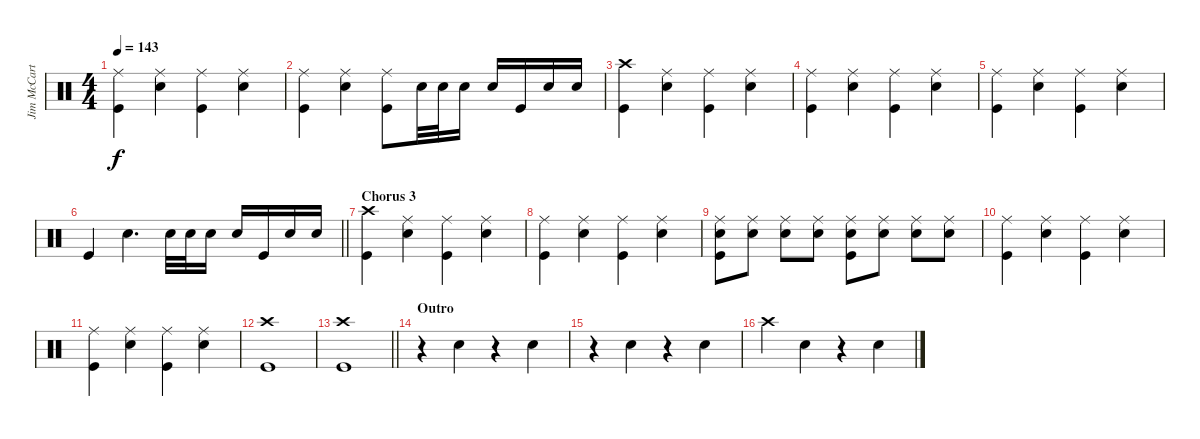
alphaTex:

\track ("Jim McCarty" "Jim McCart") {instrument percussion}
\staff {score}
\articulation defaults
\ts (4 4)
\tempo 143
\clef neutral
\ks c
("Ride (middle)" "Kick (hit)").4{dy f} ("Ride (middle)" "Electric Snare (hit)").4 ("Ride (middle)" "Kick (hit)").4 ("Ride (middle)" "Electric Snare (hit)").4 |
("Ride (middle)" "Kick (hit)").4 ("Ride (middle)" "Electric Snare (hit)").4 ("Ride (middle)" "Kick (hit)").8 "Electric Snare (hit)".32 "Electric Snare (hit)".32 "Electric Snare (hit)".16 "Electric Snare (hit)".16 "Kick (hit)".16 "Electric Snare (hit)".16 "Electric Snare (hit)".16 |
("Crash high (hit)" "Kick (hit)").4 ("Ride (middle)" "Electric Snare (hit)").4 ("Ride (middle)" "Kick (hit)").4 ("Ride (middle)" "Electric Snare (hit)").4 |
("Ride (middle)" "Kick (hit)").4 ("Ride (middle)" "Electric Snare (hit)").4 ("Ride (middle)" "Kick (hit)").4 ("Ride (middle)" "Electric Snare (hit)").4 |
("Ride (middle)" "Kick (hit)").4 ("Ride (middle)" "Electric Snare (hit)").4 ("Ride (middle)" "Kick (hit)").4 ("Ride (middle)" "Electric Snare (hit)").4 |
\barLineRight lightlight "Kick (hit)".4 "Electric Snare (hit)".4{d} "Electric Snare (hit)".32 "Electric Snare (hit)".32 "Electric Snare (hit)".16 "Electric Snare (hit)".16 "Kick (hit)".16 "Electric Snare (hit)".16 "Electric Snare (hit)".16
|
\section ("" "Chorus 3")
("Crash high (hit)" "Kick (hit)").4 ("Ride (middle)" "Electric Snare (hit)").4 ("Ride (middle)" "Kick (hit)").4 ("Ride (middle)" "Electric Snare (hit)").4 |
("Ride (middle)" "Kick (hit)").4 ("Ride (middle)" "Electric Snare (hit)").4 ("Ride (middle)" "Kick (hit)").4 ("Ride (middle)" "Electric Snare (hit)").4 |
("Ride (middle)" "Electric Snare (hit)" "Kick (hit)").8 ("Ride (middle)" "Electric Snare (hit)").8 ("Ride (middle)" "Electric Snare (hit)").8 ("Ride (middle)" "Electric Snare (hit)").8 ("Ride (middle)" "Electric Snare (hit)" "Kick (hit)").8 ("Ride (middle)" "Electric Snare (hit)").8 ("Ride (middle)" "Electric Snare (hit)").8 ("Ride (middle)" "Electric Snare (hit)").8 |
("Ride (middle)" "Kick (hit)").4 ("Ride (middle)" "Electric Snare (hit)").4 ("Ride (middle)" "Kick (hit)").4 ("Ride (middle)" "Electric Snare (hit)").4 |
("Ride (middle)" "Kick (hit)").4 ("Ride (middle)" "Electric Snare (hit)").4 ("Ride (middle)" "Kick (hit)").4 ("Ride (middle)" "Electric Snare (hit)").4 |
("Crash high (hit)" "Kick (hit)").1 |
\barLineRight lightlight
("Crash high (hit)" "Kick (hit)").1 |
\section ("" "Outro")
r.4 "Electric Snare (hit)".4 r.4 "Electric Snare (hit)".4 |
r.4 "Electric Snare (hit)".4 r.4 "Electric Snare (hit)".4 |
"Crash high (hit)".4 "Electric Snare (hit)".4 r.4 "Electric Snare (hit)".4
